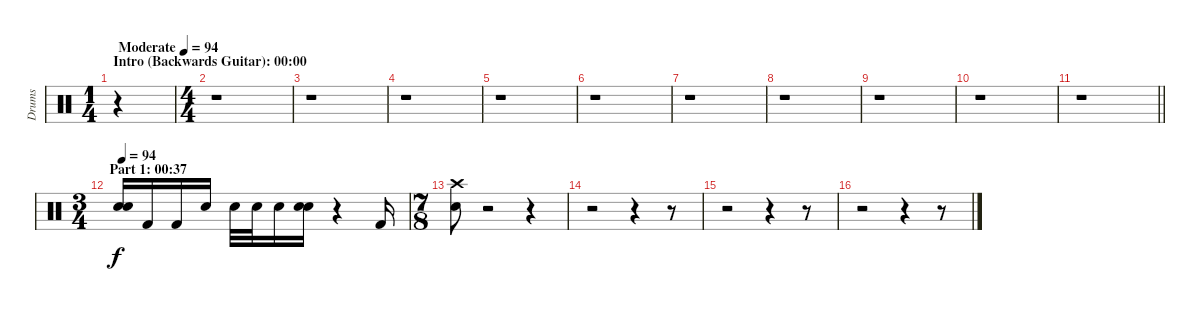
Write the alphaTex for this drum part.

\track ("Drums" "Drums") {instrument percussion}
\staff {score}
\articulation defaults
\ts (1 4)
\section ("" "Intro (Backwards Guitar): 00:00")
\tempo (94 "Moderate")
\tempo 74
\tempo (94 "Moderate")
\clef neutral
\ks c
r.4{dy f} |
\ts (4 4)
r.1 |
r.1 |
r.1 |
r.1 |
r.1 |
r.1 |
r.1 |
r.1 |
r.1 |
\barLineRight lightlight
r.1 |
\ts (3 4)
\section ("" "Part 1: 00:37")
\tempo 94
("Electric Snare (hit)" "Electric Snare (hit)").16{bd 60} "Kick (hit) 2".16 "Kick (hit) 2".16 "Electric Snare (hit)".16 "Electric Snare (hit)".32 "Electric Snare (hit)".32 "Electric Snare (hit)".16 ("Electric Snare (hit)" "Electric Snare (hit)").16{bd 60} r.4 "Kick (hit) 2".16 |
\ts (7 8)
("Crash high (hit)" "Electric Snare (hit)").8 r.2 r.4 |
r.2 r.4 r.8 |
r.2 r.4 r.8 |
r.2 r.4 r.8
